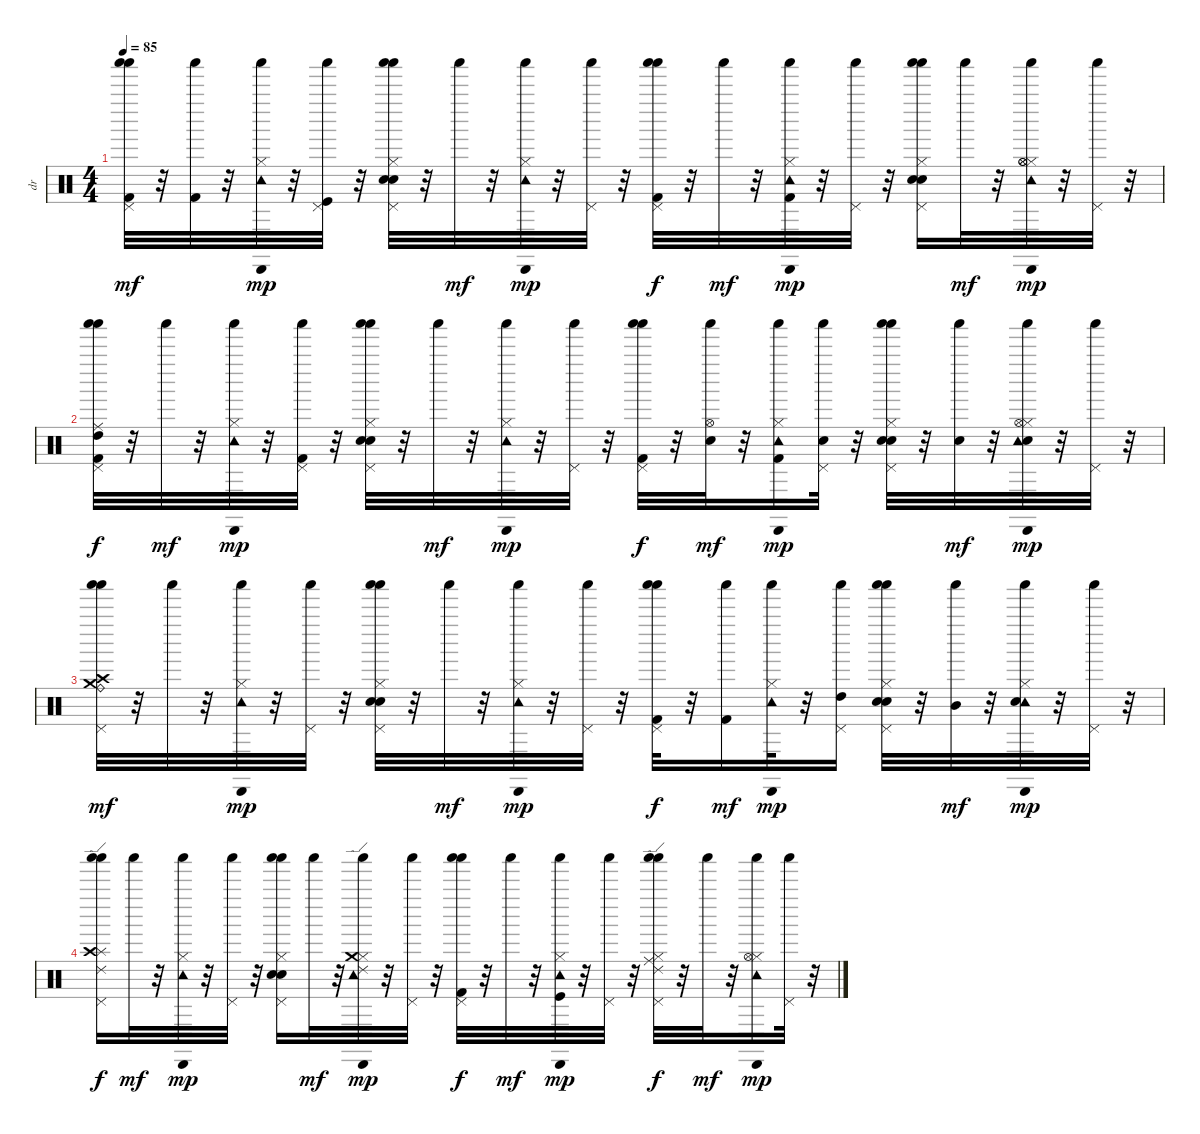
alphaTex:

\track ("dr" "dr") {instrument percussion}
\staff {score}
\articulation defaults
\ts (4 4)
\tempo 85
\clef neutral
\ks c
("Pedal Hi-Hat (hit)" "Shaker (hit)" "Shaker (hit)" "Kick (hit) 2").32{dy mf} r.32 ("Shaker (hit)" "Kick (hit) 2").32 r.32 ("Cabasa (hit)" "Tambourine (hit)" "Shaker (hit)" "Hi-Hat (closed)").32{dy mp} r.32 ("Pedal Hi-Hat (hit)" "Shaker (hit)" "Kick (hit)").32 r.32 ("Pedal Hi-Hat (hit)" "Shaker (hit)" "Shaker (hit)" "Hi-Hat (closed)" "Electric Snare (hit)" "Snare (hit) 2").32 r.32 "Shaker (hit)".32{dy mf} r.32 ("Hi-Hat (closed)" "Cabasa (hit)" "Tambourine (hit)" "Shaker (hit)").32{dy mp} r.32 ("Pedal Hi-Hat (hit)" "Shaker (hit)").32 r.32 ("Pedal Hi-Hat (hit)" "Shaker (hit)" "Shaker (hit)" "Kick (hit) 2").32{dy f} r.32 "Shaker (hit)".32{dy mf} r.32 ("Hi-Hat (closed)" "Cabasa (hit)" "Tambourine (hit)" "Shaker (hit)" "Kick (hit) 2").32{dy mp} r.32 ("Pedal Hi-Hat (hit)" "Shaker (hit)").32 r.32 ("Electric Snare (hit)" "Pedal Hi-Hat (hit)" "Shaker (hit)" "Shaker (hit)" "Hi-Hat (closed)" "Snare (hit) 2").16 "Shaker (hit)".32{dy mf} r.32 ("Hi-Hat (closed)" "Cabasa (hit)" "Tambourine (hit)" "Shaker (hit)" "Hi-Hat (open)" "Hi-Hat (open)").32{dy mp} r.32 ("Pedal Hi-Hat (hit)" "Shaker (hit)").32 r.32 |
("Pedal Hi-Hat (hit)" "Shaker (hit)" "Shaker (hit)" "Kick (hit) 2" "Ride (middle)" "High Tom (hit)").32{dy f} r.32 "Shaker (hit)".32{dy mf} r.32 ("Hi-Hat (closed)" "Cabasa (hit)" "Tambourine (hit)" "Shaker (hit)").32{dy mp} r.32 ("Pedal Hi-Hat (hit)" "Shaker (hit)" "Kick (hit) 2").32 r.32 ("Electric Snare (hit)" "Pedal Hi-Hat (hit)" "Shaker (hit)" "Shaker (hit)" "Hi-Hat (closed)" "Snare (hit) 2").32 r.32 "Shaker (hit)".32{dy mf} r.32 ("Hi-Hat (closed)" "Cabasa (hit)" "Tambourine (hit)" "Shaker (hit)").32{dy mp} r.32 ("Pedal Hi-Hat (hit)" "Shaker (hit)").32 r.32 ("Pedal Hi-Hat (hit)" "Shaker (hit)" "Shaker (hit)" "Kick (hit) 2").32{dy f} r.32 ("Shaker (hit)" "Snare (hit) 2" "Hi-Hat (open)").32{dy mf} r.32 ("Hi-Hat (closed)" "Cabasa (hit)" "Tambourine (hit)" "Shaker (hit)" "Kick (hit) 2").16{dy mp} ("Pedal Hi-Hat (hit)" "Shaker (hit)" "Electric Snare (hit)").32 r.32 ("Electric Snare (hit)" "Pedal Hi-Hat (hit)" "Shaker (hit)" "Shaker (hit)" "Hi-Hat (closed)" "Snare (hit) 2").32 r.32 ("Snare (hit) 2" "Shaker (hit)").32{dy mf} r.32 ("Snare (hit) 2" "Hi-Hat (closed)" "Cabasa (hit)" "Tambourine (hit)" "Shaker (hit)" "Hi-Hat (open)").32{dy mp} r.32 ("Pedal Hi-Hat (hit)" "Shaker (hit)").32 r.32 |
("Shaker (hit)" "Shaker (hit)" "Pedal Hi-Hat (hit)" "Crash medium (hit)" "Ride (bell)" "Crash high (hit)").32{dy mf} r.32 "Shaker (hit)".32 r.32 ("Hi-Hat (closed)" "Cabasa (hit)" "Tambourine (hit)" "Shaker (hit)").32{dy mp} r.32 ("Pedal Hi-Hat (hit)" "Shaker (hit)").32 r.32 ("Electric Snare (hit)" "Pedal Hi-Hat (hit)" "Shaker (hit)" "Shaker (hit)" "Hi-Hat (closed)" "Snare (hit) 2").32 r.32 "Shaker (hit)".32{dy mf} r.32 ("Hi-Hat (closed)" "Cabasa (hit)" "Tambourine (hit)" "Shaker (hit)").32{dy mp} r.32 ("Pedal Hi-Hat (hit)" "Shaker (hit)").32 r.32 ("Pedal Hi-Hat (hit)" "Shaker (hit)" "Shaker (hit)" "Kick (hit) 2").32{dy f} r.32 ("Shaker (hit)" "Kick (hit) 2").16{dy mf} ("Cabasa (hit)" "Tambourine (hit)" "Shaker (hit)" "Hi-Hat (closed)").32{dy mp} r.32 ("Pedal Hi-Hat (hit)" "Shaker (hit)" "High Tom (hit)").16 ("Shaker (hit)" "Shaker (hit)" "Pedal Hi-Hat (hit)" "Hi-Hat (closed)" "Electric Snare (hit)" "Snare (hit) 2").32 r.32 ("Shaker (hit)" "Mid Tom (hit)").32{dy mf} r.32 ("Hi-Hat (closed)" "Cabasa (hit)" "Tambourine (hit)" "Shaker (hit)" "Snare (hit) 2").32{dy mp} r.32 ("Pedal Hi-Hat (hit)" "Shaker (hit)").32 r.32 |
("Pedal Hi-Hat (hit)" "Shaker (hit)" "Shaker (hit)" "Ride (edge) 2" "Splash (hit)" "Crash high (hit)").16{dy f} "Shaker (hit)".32{dy mf} r.32 ("Hi-Hat (closed)" "Cabasa (hit)" "Tambourine (hit)" "Shaker (hit)").32{dy mp} r.32 ("Pedal Hi-Hat (hit)" "Shaker (hit)").32 r.32 ("Electric Snare (hit)" "Pedal Hi-Hat (hit)" "Shaker (hit)" "Shaker (hit)" "Hi-Hat (closed)" "Snare (hit) 2").16 "Shaker (hit)".32{dy mf} r.32 ("Hi-Hat (closed)" "Cabasa (hit)" "Tambourine (hit)" "Shaker (hit)" "Crash medium (hit)" "Ride (edge) 2").32{dy mp} r.32 ("Pedal Hi-Hat (hit)" "Shaker (hit)").32 r.32 ("Pedal Hi-Hat (hit)" "Shaker (hit)" "Shaker (hit)" "Kick (hit) 2").32{dy f} r.32 "Shaker (hit)".32{dy mf} r.32 ("Hi-Hat (closed)" "Cabasa (hit)" "Tambourine (hit)" "Shaker (hit)" "Kick (hit)").32{dy mp} r.32 ("Pedal Hi-Hat (hit)" "Shaker (hit)").32 r.32 ("Pedal Hi-Hat (hit)" "Shaker (hit)" "Shaker (hit)" "Hi-Hat (closed)" "Ride (middle)" "Ride (edge) 2").32{dy f} r.32 "Shaker (hit)".32{dy mf} r.32 ("Hi-Hat (closed)" "Cabasa (hit)" "Tambourine (hit)" "Shaker (hit)" "Hi-Hat (open)").16{dy mp} ("Pedal Hi-Hat (hit)" "Shaker (hit)").32 r.32
